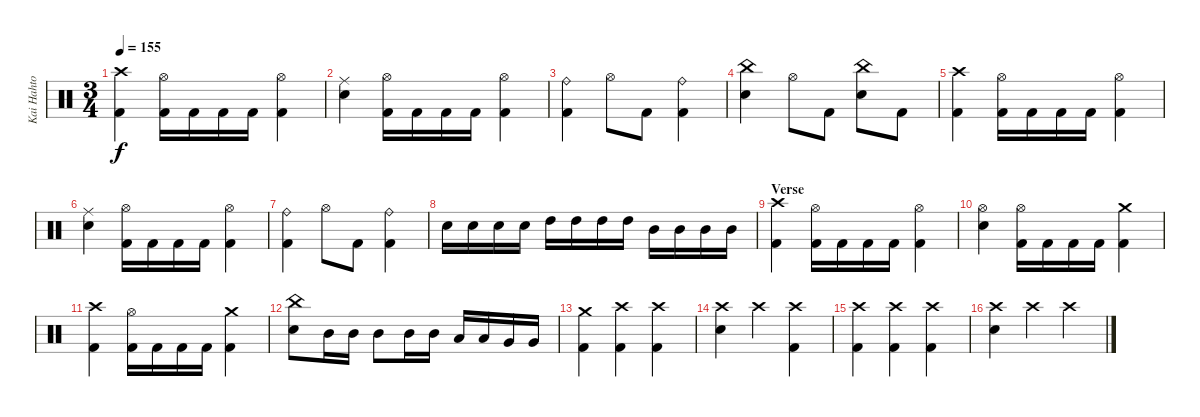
\track ("Kai Hahto" "Kai Hahto") {instrument percussion}
\staff {score}
\articulation defaults
\ts (3 4)
\tempo 155
\clef neutral
\ks c
("Crash high (hit)" "Kick (hit) 2").4{dy f} ("Hi-Hat (open)" "Kick (hit) 2").16 "Kick (hit) 2".16 "Kick (hit) 2".16 "Kick (hit) 2".16 ("Hi-Hat (open)" "Kick (hit) 2").4 |
("Ride (middle)" "Electric Snare (hit)").4 ("Hi-Hat (open)" "Kick (hit) 2").16 "Kick (hit) 2".16 "Kick (hit) 2".16 "Kick (hit) 2".16 ("Hi-Hat (open)" "Kick (hit) 2").4 |
("Ride (bell)" "Kick (hit) 2").4 "Hi-Hat (open)".8 "Kick (hit) 2".8 ("Ride (bell)" "Kick (hit) 2").4 |
("China (hit)" "Electric Snare (hit)").4 "Hi-Hat (open)".8 "Kick (hit) 2".8 ("China (hit)" "Electric Snare (hit)").8 "Kick (hit) 2".8 |
("Crash high (hit)" "Kick (hit) 2").4 ("Hi-Hat (open)" "Kick (hit) 2").16 "Kick (hit) 2".16 "Kick (hit) 2".16 "Kick (hit) 2".16 ("Hi-Hat (open)" "Kick (hit) 2").4 |
("Ride (middle)" "Electric Snare (hit)").4 ("Hi-Hat (open)" "Kick (hit) 2").16 "Kick (hit) 2".16 "Kick (hit) 2".16 "Kick (hit) 2".16 ("Hi-Hat (open)" "Kick (hit) 2").4 |
("Ride (bell)" "Kick (hit) 2").4 "Hi-Hat (open)".8 "Kick (hit) 2".8 ("Ride (bell)" "Kick (hit) 2").4 |
"Electric Snare (hit)".16 "Electric Snare (hit)".16 "Electric Snare (hit)".16 "Electric Snare (hit)".16 "High Tom (hit)".16 "High Tom (hit)".16 "High Tom (hit)".16 "High Tom (hit)".16 "Mid Tom (hit)".16 "Mid Tom (hit)".16 "Mid Tom (hit)".16 "Mid Tom (hit)".16 |
\section ("" "Verse")
("Crash high (hit)" "Kick (hit) 2").4 ("Hi-Hat (open)" "Kick (hit) 2").16 "Kick (hit) 2".16 "Kick (hit) 2".16 "Kick (hit) 2".16 ("Hi-Hat (open)" "Kick (hit) 2").4 |
("Hi-Hat (open)" "Electric Snare (hit)").4 ("Hi-Hat (open)" "Kick (hit) 2").16 "Kick (hit) 2".16 "Kick (hit) 2".16 "Kick (hit) 2".16 ("Crash medium (hit)" "Kick (hit) 2").4 |
("Crash high (hit)" "Kick (hit) 2").4 ("Hi-Hat (open)" "Kick (hit) 2").16 "Kick (hit) 2".16 "Kick (hit) 2".16 "Kick (hit) 2".16 ("Crash medium (hit)" "Kick (hit) 2").4 |
("China (hit)" "Electric Snare (hit)").8 "Mid Tom (hit)".16 "Mid Tom (hit)".16 "Mid Tom (hit)".8 "Mid Tom (hit)".16 "Mid Tom (hit)".16 "Low Tom (hit)".16 "Low Tom (hit)".16 "Very Low Tom (hit)".16 "Very Low Tom (hit)".16 |
("Crash medium (hit)" "Kick (hit) 2").4 ("Crash high (hit)" "Kick (hit) 2").4 ("Crash high (hit)" "Kick (hit) 2").4 |
("Crash high (hit)" "Electric Snare (hit)").4 "Crash high (hit)".4 ("Crash high (hit)" "Kick (hit) 2").4 |
("Crash high (hit)" "Kick (hit) 2").4 ("Crash high (hit)" "Kick (hit) 2").4 ("Crash high (hit)" "Kick (hit) 2").4 |
("Crash high (hit)" "Electric Snare (hit)").4 "Crash high (hit)".4 "Crash high (hit)".4
